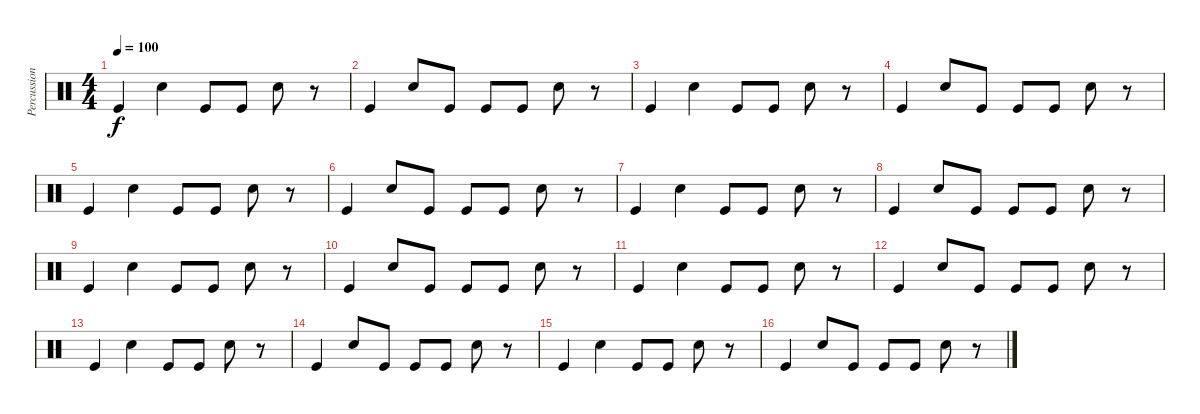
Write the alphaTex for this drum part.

\track ("Percussion" "Percussion") {instrument percussion}
\staff {score}
\articulation defaults
\ts (4 4)
\tempo 100
\clef neutral
\ks c "Kick (hit)".4{dy f} "Snare (hit) 2".4 "Kick (hit)".8 "Kick (hit)".8 "Snare (hit) 2".8
r.8 |
"Kick (hit)".4 "Snare (hit) 2".8 "Kick (hit)".8 "Kick (hit)".8 "Kick (hit)".8 "Snare (hit) 2".8 r.8 |
"Kick (hit)".4 "Snare (hit) 2".4 "Kick (hit)".8 "Kick (hit)".8 "Snare (hit) 2".8 r.8 |
"Kick (hit)".4 "Snare (hit) 2".8 "Kick (hit)".8 "Kick (hit)".8 "Kick (hit)".8 "Snare (hit) 2".8 r.8 |
"Kick (hit)".4 "Snare (hit) 2".4 "Kick (hit)".8 "Kick (hit)".8 "Snare (hit) 2".8 r.8 |
"Kick (hit)".4 "Snare (hit) 2".8 "Kick (hit)".8 "Kick (hit)".8 "Kick (hit)".8 "Snare (hit) 2".8 r.8 |
"Kick (hit)".4 "Snare (hit) 2".4 "Kick (hit)".8 "Kick (hit)".8 "Snare (hit) 2".8 r.8 |
"Kick (hit)".4 "Snare (hit) 2".8 "Kick (hit)".8 "Kick (hit)".8 "Kick (hit)".8 "Snare (hit) 2".8 r.8 |
"Kick (hit)".4 "Snare (hit) 2".4 "Kick (hit)".8 "Kick (hit)".8 "Snare (hit) 2".8 r.8 |
"Kick (hit)".4 "Snare (hit) 2".8 "Kick (hit)".8 "Kick (hit)".8 "Kick (hit)".8 "Snare (hit) 2".8 r.8 |
"Kick (hit)".4 "Snare (hit) 2".4 "Kick (hit)".8 "Kick (hit)".8 "Snare (hit) 2".8 r.8 |
"Kick (hit)".4 "Snare (hit) 2".8 "Kick (hit)".8 "Kick (hit)".8 "Kick (hit)".8 "Snare (hit) 2".8 r.8 |
"Kick (hit)".4 "Snare (hit) 2".4 "Kick (hit)".8 "Kick (hit)".8 "Snare (hit) 2".8 r.8 |
"Kick (hit)".4 "Snare (hit) 2".8 "Kick (hit)".8 "Kick (hit)".8 "Kick (hit)".8 "Snare (hit) 2".8 r.8 |
"Kick (hit)".4 "Snare (hit) 2".4 "Kick (hit)".8 "Kick (hit)".8 "Snare (hit) 2".8 r.8 |
"Kick (hit)".4 "Snare (hit) 2".8 "Kick (hit)".8 "Kick (hit)".8 "Kick (hit)".8 "Snare (hit) 2".8 r.8
